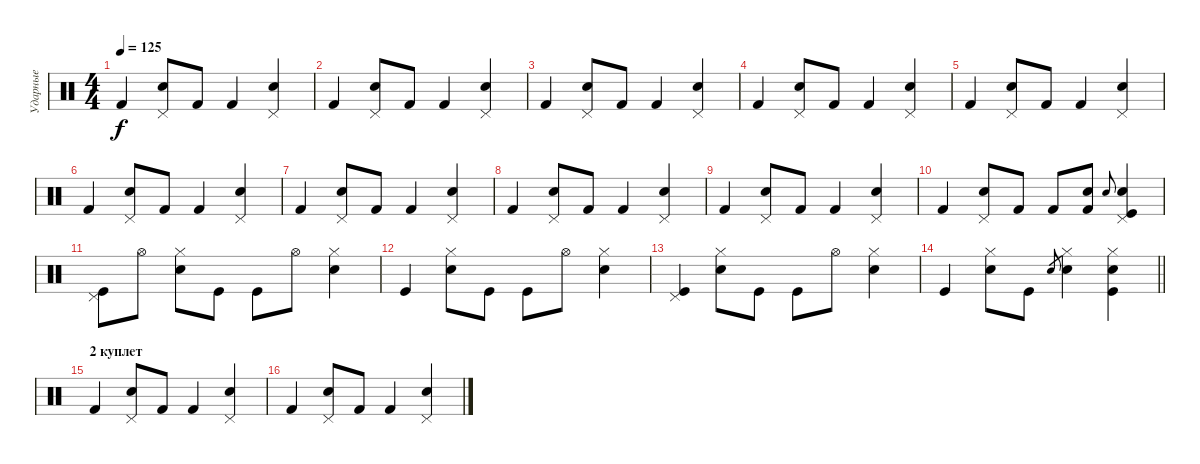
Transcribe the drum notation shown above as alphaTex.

\track ("Ударные" "Ударные") {instrument percussion}
\staff {score}
\articulation defaults
\ts (4 4)
\tempo 125
\clef neutral
\ks c "Kick (hit) 2".4{dy f}
("Snare (hit) 2" "Pedal Hi-Hat (hit)").8 "Kick (hit) 2".8 "Kick (hit) 2".4 ("Snare (hit) 2" "Pedal Hi-Hat (hit)").4 |
"Kick (hit) 2".4 ("Snare (hit) 2" "Pedal Hi-Hat (hit)").8 "Kick (hit) 2".8 "Kick (hit) 2".4 ("Snare (hit) 2" "Pedal Hi-Hat (hit)").4 |
"Kick (hit) 2".4 ("Snare (hit) 2" "Pedal Hi-Hat (hit)").8 "Kick (hit) 2".8 "Kick (hit) 2".4 ("Snare (hit) 2" "Pedal Hi-Hat (hit)").4 |
"Kick (hit) 2".4 ("Snare (hit) 2" "Pedal Hi-Hat (hit)").8 "Kick (hit) 2".8 "Kick (hit) 2".4 ("Snare (hit) 2" "Pedal Hi-Hat (hit)").4 |
"Kick (hit) 2".4 ("Snare (hit) 2" "Pedal Hi-Hat (hit)").8 "Kick (hit) 2".8 "Kick (hit) 2".4 ("Snare (hit) 2" "Pedal Hi-Hat (hit)").4 |
"Kick (hit) 2".4 ("Snare (hit) 2" "Pedal Hi-Hat (hit)").8 "Kick (hit) 2".8 "Kick (hit) 2".4 ("Snare (hit) 2" "Pedal Hi-Hat (hit)").4 |
"Kick (hit) 2".4 ("Snare (hit) 2" "Pedal Hi-Hat (hit)").8 "Kick (hit) 2".8 "Kick (hit) 2".4 ("Snare (hit) 2" "Pedal Hi-Hat (hit)").4 |
"Kick (hit) 2".4 ("Snare (hit) 2" "Pedal Hi-Hat (hit)").8 "Kick (hit) 2".8 "Kick (hit) 2".4 ("Snare (hit) 2" "Pedal Hi-Hat (hit)").4 |
"Kick (hit) 2".4 ("Snare (hit) 2" "Pedal Hi-Hat (hit)").8 "Kick (hit) 2".8 "Kick (hit) 2".4 ("Snare (hit) 2" "Pedal Hi-Hat (hit)").4 |
"Kick (hit) 2".4 ("Snare (hit) 2" "Pedal Hi-Hat (hit)").8 "Kick (hit) 2".8 "Kick (hit) 2".8 ("Snare (hit) 2" "Kick (hit) 2").8 "Snare (hit) 2".8{gr onbeat} ("Kick (hit)" "Snare (hit) 2" "Pedal Hi-Hat (hit)").4 |
("Kick (hit)" "Pedal Hi-Hat (hit)").8 "Hi-Hat (open)".8 ("Hi-Hat (closed)" "Snare (hit) 2").8 "Kick (hit)".8 "Kick (hit)".8 "Hi-Hat (open)".8 ("Hi-Hat (closed)" "Snare (hit) 2").4 |
"Kick (hit)".4 ("Hi-Hat (closed)" "Snare (hit) 2").8 "Kick (hit)".8 "Kick (hit)".8 "Hi-Hat (open)".8 ("Hi-Hat (closed)" "Snare (hit) 2").4 |
("Kick (hit)" "Pedal Hi-Hat (hit)").4 ("Hi-Hat (closed)" "Snare (hit) 2").8 "Kick (hit)".8 "Kick (hit)".8 "Hi-Hat (open)".8 ("Hi-Hat (closed)" "Snare (hit) 2").4 |
\barLineRight lightlight "Kick (hit)".4
("Hi-Hat (closed)" "Snare (hit) 2").8 "Kick (hit)".8 "Snare (hit) 2".8{gr} ("Hi-Hat (closed)" "Snare (hit) 2").4 ("Hi-Hat (closed)" "Snare (hit) 2" "Kick (hit)").4 |
\section ("" "2 куплет")
"Kick (hit) 2".4 ("Snare (hit) 2" "Pedal Hi-Hat (hit)").8 "Kick (hit) 2".8 "Kick (hit) 2".4 ("Snare (hit) 2" "Pedal Hi-Hat (hit)").4 |
"Kick (hit) 2".4 ("Snare (hit) 2" "Pedal Hi-Hat (hit)").8 "Kick (hit) 2".8 "Kick (hit) 2".4 ("Snare (hit) 2" "Pedal Hi-Hat (hit)").4
